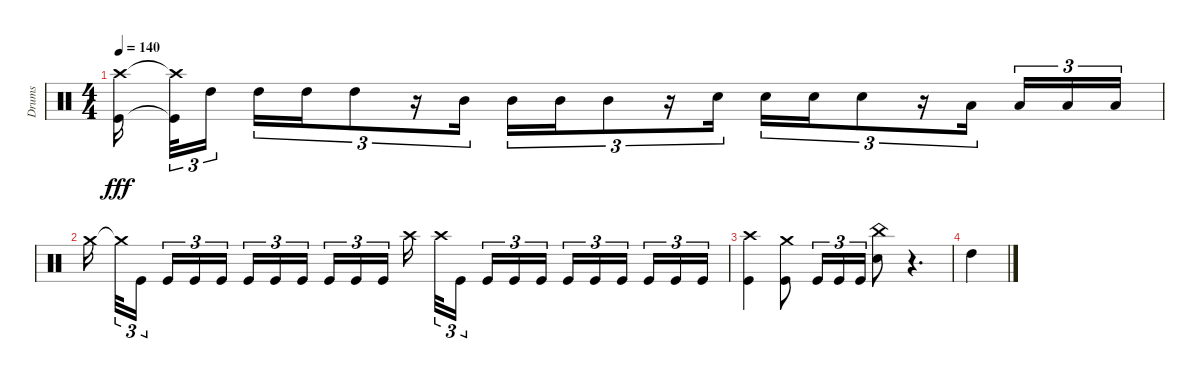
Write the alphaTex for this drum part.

\track ("Drums" "Drums") {instrument percussion}
\staff {score}
\articulation defaults
\ts (4 4)
\tempo 140
\clef neutral
\ks aminor
("Kick (hit)" "Crash high (hit)").16{dy fff} ("Kick (hit)"{t} "Crash high (hit)"{t}).32{tu (3 2)} "High Tom (hit)".16{tu (3 2)} "High Tom (hit)".16{tu (3 2)} "High Tom (hit)".16{tu (3 2)} "High Tom (hit)".8{tu (3 2)} r.16{tu (3 2)} "Mid Tom (hit)".16{tu (3 2)} "Mid Tom (hit)".16{tu (3 2)} "Mid Tom (hit)".16{tu (3 2)} "Mid Tom (hit)".8{tu (3 2)} r.16{tu (3 2)} "Snare (hit) 2".16{tu (3 2)} "Snare (hit) 2".16{tu (3 2)} "Snare (hit) 2".16{tu (3 2)} "Snare (hit) 2".8{tu (3 2)} r.16{tu (3 2)} "Low Tom (hit)".16{tu (3 2)} "Low Tom (hit)".16{tu (3 2)} "Low Tom (hit)".16{tu (3 2)} "Low Tom (hit)".16{tu (3 2)} |
"Crash medium (hit)".16 "Crash medium (hit)"{t}.32{tu (3 2)} "Kick (hit)".16{tu (3 2)} "Kick (hit)".16{tu (3 2)} "Kick (hit)".16{tu (3 2)} "Kick (hit)".16{tu (3 2)} "Kick (hit)".16{tu (3 2)} "Kick (hit)".16{tu (3 2)} "Kick (hit)".16{tu (3 2)} "Kick (hit)".16{tu (3 2)} "Kick (hit)".16{tu (3 2)} "Kick (hit)".16{tu (3 2)} "Crash high (hit)".16 "Crash high (hit)".32{tu (3 2)} "Kick (hit)".16{tu (3 2)} "Kick (hit)".16{tu (3 2)} "Kick (hit)".16{tu (3 2)} "Kick (hit)".16{tu (3 2)} "Kick (hit)".16{tu (3 2)} "Kick (hit)".16{tu (3 2)} "Kick (hit)".16{tu (3 2)} "Kick (hit)".16{tu (3 2)} "Kick (hit)".16{tu (3 2)} "Kick (hit)".16{tu (3 2)} |
("Kick (hit)" "Crash high (hit)").4 ("Crash medium (hit)" "Kick (hit)").8 "Kick (hit)".16{tu (3 2)} "Kick (hit)".16{tu (3 2)} "Kick (hit)".16{tu (3 2)} ("China (hit)" "Snare (hit) 2").8 r.4{d} |
"High Tom (hit)".4
